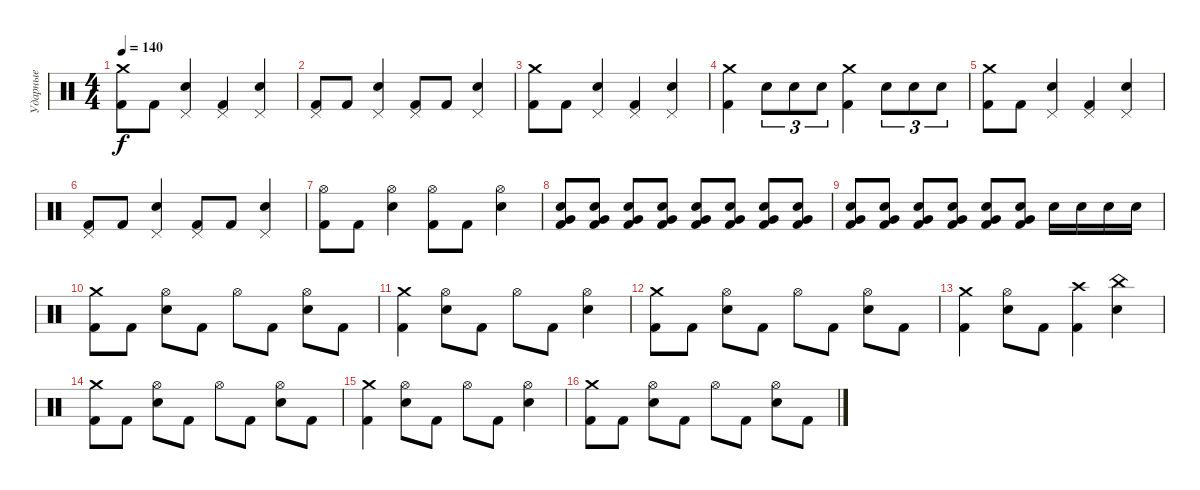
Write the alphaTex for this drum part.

\track ("Ударные" "Ударные") {instrument percussion}
\staff {score}
\articulation defaults
\ts (4 4)
\tempo 140
\clef neutral
\ks c
("Crash medium (hit)" "Kick (hit) 2").8{dy f} "Kick (hit) 2".8 ("Pedal Hi-Hat (hit)" "Electric Snare (hit)").4 ("Pedal Hi-Hat (hit)" "Kick (hit) 2").4 ("Pedal Hi-Hat (hit)" "Electric Snare (hit)").4 |
("Pedal Hi-Hat (hit)" "Kick (hit) 2").8 "Kick (hit) 2".8 ("Pedal Hi-Hat (hit)" "Electric Snare (hit)").4 ("Pedal Hi-Hat (hit)" "Kick (hit) 2").8 "Kick (hit) 2".8 ("Pedal Hi-Hat (hit)" "Electric Snare (hit)").4 |
("Crash medium (hit)" "Kick (hit) 2").8 "Kick (hit) 2".8 ("Pedal Hi-Hat (hit)" "Electric Snare (hit)").4 ("Pedal Hi-Hat (hit)" "Kick (hit) 2").4 ("Pedal Hi-Hat (hit)" "Electric Snare (hit)").4 |
("Crash medium (hit)" "Kick (hit) 2").4 "Electric Snare (hit)".8{tu (3 2)} "Electric Snare (hit)".8{tu (3 2)} "Electric Snare (hit)".8{tu (3 2)} ("Crash medium (hit)" "Kick (hit) 2").4 "Electric Snare (hit)".8{tu (3 2)} "Electric Snare (hit)".8{tu (3 2)} "Electric Snare (hit)".8{tu (3 2)} |
("Crash medium (hit)" "Kick (hit) 2").8 "Kick (hit) 2".8 ("Pedal Hi-Hat (hit)" "Electric Snare (hit)").4 ("Pedal Hi-Hat (hit)" "Kick (hit) 2").4 ("Pedal Hi-Hat (hit)" "Electric Snare (hit)").4 |
("Pedal Hi-Hat (hit)" "Kick (hit) 2").8 "Kick (hit) 2".8 ("Pedal Hi-Hat (hit)" "Electric Snare (hit)").4 ("Pedal Hi-Hat (hit)" "Kick (hit) 2").8 "Kick (hit) 2".8 ("Pedal Hi-Hat (hit)" "Electric Snare (hit)").4 |
("Hi-Hat (open)" "Kick (hit) 2").8 "Kick (hit) 2".8 ("Hi-Hat (open)" "Electric Snare (hit)").4 ("Hi-Hat (open)" "Kick (hit) 2").8 "Kick (hit) 2".8 ("Hi-Hat (open)" "Electric Snare (hit)").4 |
("Electric Snare (hit)" "Very Low Tom (hit)" "Kick (hit) 2").8 ("Electric Snare (hit)" "Very Low Tom (hit)" "Kick (hit) 2").8 ("Electric Snare (hit)" "Very Low Tom (hit)" "Kick (hit) 2").8 ("Electric Snare (hit)" "Very Low Tom (hit)" "Kick (hit) 2").8 ("Electric Snare (hit)" "Very Low Tom (hit)" "Kick (hit) 2").8 ("Electric Snare (hit)" "Very Low Tom (hit)" "Kick (hit) 2").8 ("Electric Snare (hit)" "Very Low Tom (hit)" "Kick (hit) 2").8 ("Electric Snare (hit)" "Very Low Tom (hit)" "Kick (hit) 2").8 |
("Electric Snare (hit)" "Very Low Tom (hit)" "Kick (hit) 2").8 ("Electric Snare (hit)" "Very Low Tom (hit)" "Kick (hit) 2").8 ("Electric Snare (hit)" "Very Low Tom (hit)" "Kick (hit) 2").8 ("Electric Snare (hit)" "Very Low Tom (hit)" "Kick (hit) 2").8 ("Electric Snare (hit)" "Very Low Tom (hit)" "Kick (hit) 2").8 ("Electric Snare (hit)" "Very Low Tom (hit)" "Kick (hit) 2").8 "Electric Snare (hit)".16 "Electric Snare (hit)".16 "Electric Snare (hit)".16 "Electric Snare (hit)".16 |
("Crash medium (hit)" "Kick (hit) 2").8 "Kick (hit) 2".8 ("Hi-Hat (open)" "Electric Snare (hit)").8 "Kick (hit) 2".8 "Hi-Hat (open)".8 "Kick (hit) 2".8 ("Hi-Hat (open)" "Electric Snare (hit)").8 "Kick (hit) 2".8 |
("Crash medium (hit)" "Kick (hit) 2").4 ("Hi-Hat (open)" "Electric Snare (hit)").8 "Kick (hit) 2".8 "Hi-Hat (open)".8 "Kick (hit) 2".8 ("Hi-Hat (open)" "Electric Snare (hit)").4 |
("Crash medium (hit)" "Kick (hit) 2").8 "Kick (hit) 2".8 ("Hi-Hat (open)" "Electric Snare (hit)").8 "Kick (hit) 2".8 "Hi-Hat (open)".8 "Kick (hit) 2".8 ("Hi-Hat (open)" "Electric Snare (hit)").8 "Kick (hit) 2".8 |
("Crash medium (hit)" "Kick (hit) 2").4 ("Hi-Hat (open)" "Electric Snare (hit)").8 "Kick (hit) 2".8 ("Crash high (hit)" "Kick (hit) 2").4 ("China (hit)" "Electric Snare (hit)").4 |
("Crash medium (hit)" "Kick (hit) 2").8 "Kick (hit) 2".8 ("Hi-Hat (open)" "Electric Snare (hit)").8 "Kick (hit) 2".8 "Hi-Hat (open)".8 "Kick (hit) 2".8 ("Hi-Hat (open)" "Electric Snare (hit)").8 "Kick (hit) 2".8 |
("Crash medium (hit)" "Kick (hit) 2").4 ("Hi-Hat (open)" "Electric Snare (hit)").8 "Kick (hit) 2".8 "Hi-Hat (open)".8 "Kick (hit) 2".8 ("Hi-Hat (open)" "Electric Snare (hit)").4 |
("Crash medium (hit)" "Kick (hit) 2").8 "Kick (hit) 2".8 ("Hi-Hat (open)" "Electric Snare (hit)").8 "Kick (hit) 2".8 "Hi-Hat (open)".8 "Kick (hit) 2".8 ("Hi-Hat (open)" "Electric Snare (hit)").8 "Kick (hit) 2".8
